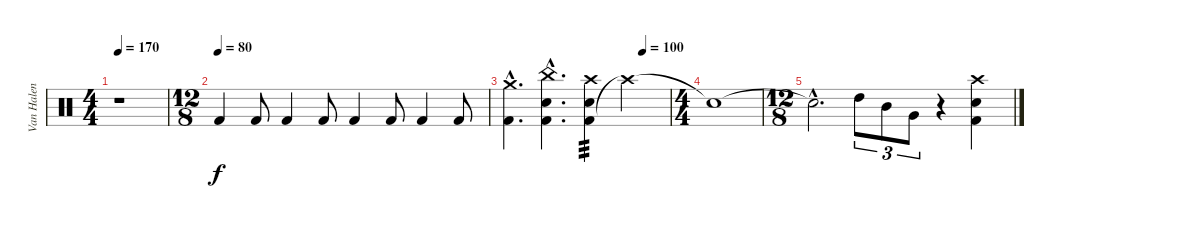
\track ("Van Halen" "Van Halen") {instrument percussion}
\staff {score}
\articulation defaults
\ts (4 4)
\tempo 170
\clef neutral
\ks c
r.1{dy f} |
\ts (12 8)
\tempo (80)
"Kick (hit) 2".4 "Kick (hit) 2".8 "Kick (hit) 2".4 "Kick (hit) 2".8 "Kick (hit) 2".4 "Kick (hit) 2".8 "Kick (hit) 2".4 "Kick (hit) 2".8 |
\tempo (100 0.8333333333333334)
("Kick (hit) 2"{hac} "Crash medium (hit)"{hac}).4{d} ("Kick (hit) 2"{hac} "Snare (hit) 2"{hac} "China (hit)"{hac}).4{d} ("Kick (hit) 2" "Snare (hit) 2" "Crash high (hit)").4{tp 3} "Crash high (hit)"{t}.2 |
\ts (4 4)
"Snare (hit)"{t}.1 |
\ts (12 8)
"Snare (hit)"{hac t}.2{d} "High Tom (hit)".8{tu (3 2)} "Mid Tom (hit)".8{tu (3 2)} "Very Low Tom (hit)".8{tu (3 2)} r.4 ("Kick (hit) 2" "Snare (hit) 2" "Crash high (hit)").4
